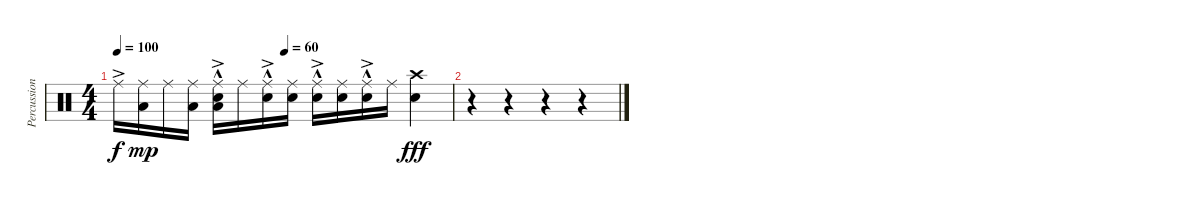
\track ("Percussion" "Percussion") {instrument percussion}
\staff {score}
\articulation defaults
\ts (4 4)
\tempo 100
\tempo (60 0.5)
\clef neutral
\ks c "Ride (middle)"{ac}.16{dy f}
("Ride (middle)" "Low Tom (hit)").16{dy mp} "Ride (middle)".16 ("Ride (middle)" "Low Tom (hit)").16 ("Snare (hit) 2"{hac} "Ride (middle)"{ac} "Low Tom (hit)").16 "Ride (middle)".16 ("Snare (hit) 2"{hac} "Ride (middle)"{ac}).16 ("Snare (hit) 2" "Ride (middle)").16 ("Snare (hit) 2"{hac} "Ride (middle)"{ac}).16 ("Snare (hit) 2" "Ride (middle)").16 ("Snare (hit) 2"{hac} "Ride (middle)"{ac}).16 "Ride (middle)".16 ("Crash high (hit)" "Snare (hit) 2").4{dy fff} |
r.4 r.4 r.4 r.4
